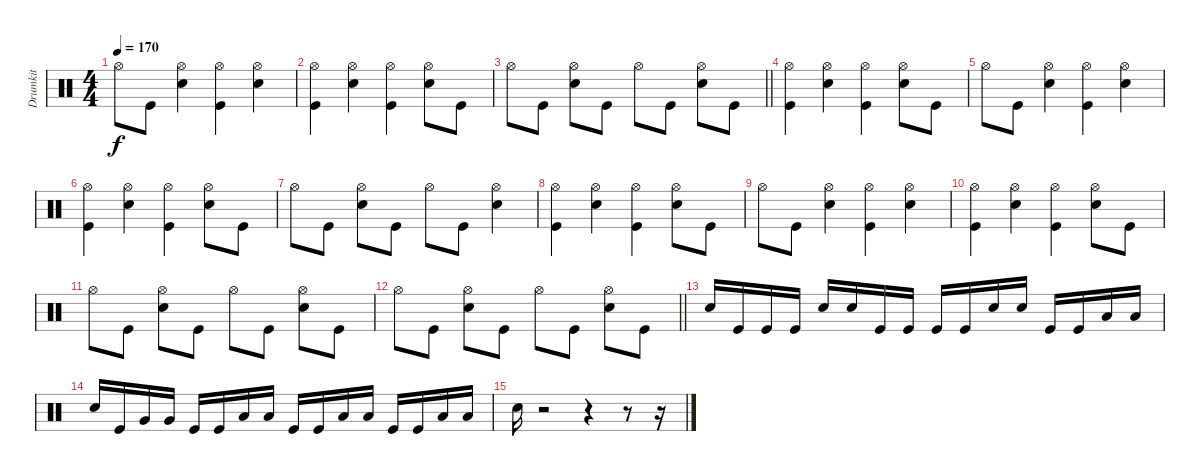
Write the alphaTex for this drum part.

\track ("Drumkit" "Drumkit") {instrument percussion}
\staff {score}
\articulation defaults
\ts (4 4)
\tempo 170
\clef neutral
\ks c "Hi-Hat (open)".8{dy f} "Kick (hit)".8
("Hi-Hat (open)" "Snare (hit) 2").4 ("Hi-Hat (open)" "Kick (hit)").4 ("Hi-Hat (open)" "Snare (hit) 2").4 |
("Hi-Hat (open)" "Kick (hit)").4 ("Hi-Hat (open)" "Snare (hit) 2").4 ("Hi-Hat (open)" "Kick (hit)").4 ("Hi-Hat (open)" "Snare (hit) 2").8 "Kick (hit)".8 |
\barLineRight lightlight "Hi-Hat (open)".8 "Kick (hit)".8
("Hi-Hat (open)" "Snare (hit) 2").8 "Kick (hit)".8 "Hi-Hat (open)".8 "Kick (hit)".8 ("Hi-Hat (open)" "Snare (hit) 2").8 "Kick (hit)".8 |
("Hi-Hat (open)" "Kick (hit)").4 ("Hi-Hat (open)" "Snare (hit) 2").4 ("Hi-Hat (open)" "Kick (hit)").4 ("Hi-Hat (open)" "Snare (hit) 2").8 "Kick (hit)".8 |
"Hi-Hat (open)".8 "Kick (hit)".8 ("Hi-Hat (open)" "Snare (hit) 2").4 ("Hi-Hat (open)" "Kick (hit)").4 ("Hi-Hat (open)" "Snare (hit) 2").4 |
("Hi-Hat (open)" "Kick (hit)").4 ("Hi-Hat (open)" "Snare (hit) 2").4 ("Hi-Hat (open)" "Kick (hit)").4 ("Hi-Hat (open)" "Snare (hit) 2").8 "Kick (hit)".8 |
"Hi-Hat (open)".8 "Kick (hit)".8 ("Hi-Hat (open)" "Snare (hit) 2").8 "Kick (hit)".8 "Hi-Hat (open)".8 "Kick (hit)".8 ("Hi-Hat (open)" "Snare (hit) 2").4 |
("Hi-Hat (open)" "Kick (hit)").4 ("Hi-Hat (open)" "Snare (hit) 2").4 ("Hi-Hat (open)" "Kick (hit)").4 ("Hi-Hat (open)" "Snare (hit) 2").8 "Kick (hit)".8 |
"Hi-Hat (open)".8 "Kick (hit)".8 ("Hi-Hat (open)" "Snare (hit) 2").4 ("Hi-Hat (open)" "Kick (hit)").4 ("Hi-Hat (open)" "Snare (hit) 2").4 |
("Hi-Hat (open)" "Kick (hit)").4 ("Hi-Hat (open)" "Snare (hit) 2").4 ("Hi-Hat (open)" "Kick (hit)").4 ("Hi-Hat (open)" "Snare (hit) 2").8 "Kick (hit)".8 |
"Hi-Hat (open)".8 "Kick (hit)".8 ("Hi-Hat (open)" "Snare (hit) 2").8 "Kick (hit)".8 "Hi-Hat (open)".8 "Kick (hit)".8 ("Hi-Hat (open)" "Snare (hit) 2").8 "Kick (hit)".8 |
\barLineRight lightlight "Hi-Hat (open)".8 "Kick (hit)".8
("Hi-Hat (open)" "Snare (hit) 2").8 "Kick (hit)".8 "Hi-Hat (open)".8 "Kick (hit)".8 ("Hi-Hat (open)" "Snare (hit) 2").8 "Kick (hit)".8 |
"Snare (hit) 2".16 "Kick (hit)".16 "Kick (hit)".16 "Kick (hit)".16 "Snare (hit) 2".16 "Snare (hit) 2".16 "Kick (hit)".16 "Kick (hit)".16 "Kick (hit)".16 "Kick (hit)".16 "Snare (hit) 2".16 "Snare (hit) 2".16 "Kick (hit)".16 "Kick (hit)".16 "Low Floor Tom (hit)".16 "Low Floor Tom (hit)".16 |
"Snare (hit) 2".16 "Kick (hit)".16 "Very Low Tom (hit)".16 "Very Low Tom (hit)".16 "Kick (hit)".16 "Kick (hit)".16 "Low Floor Tom (hit)".16 "Low Floor Tom (hit)".16 "Kick (hit)".16 "Kick (hit)".16 "Low Tom (hit)".16 "Low Tom (hit)".16 "Kick (hit)".16 "Kick (hit)".16 "Low Floor Tom (hit)".16 "Low Floor Tom (hit)".16 |
"Snare (hit) 2".16 r.2 r.4 r.8 r.16
